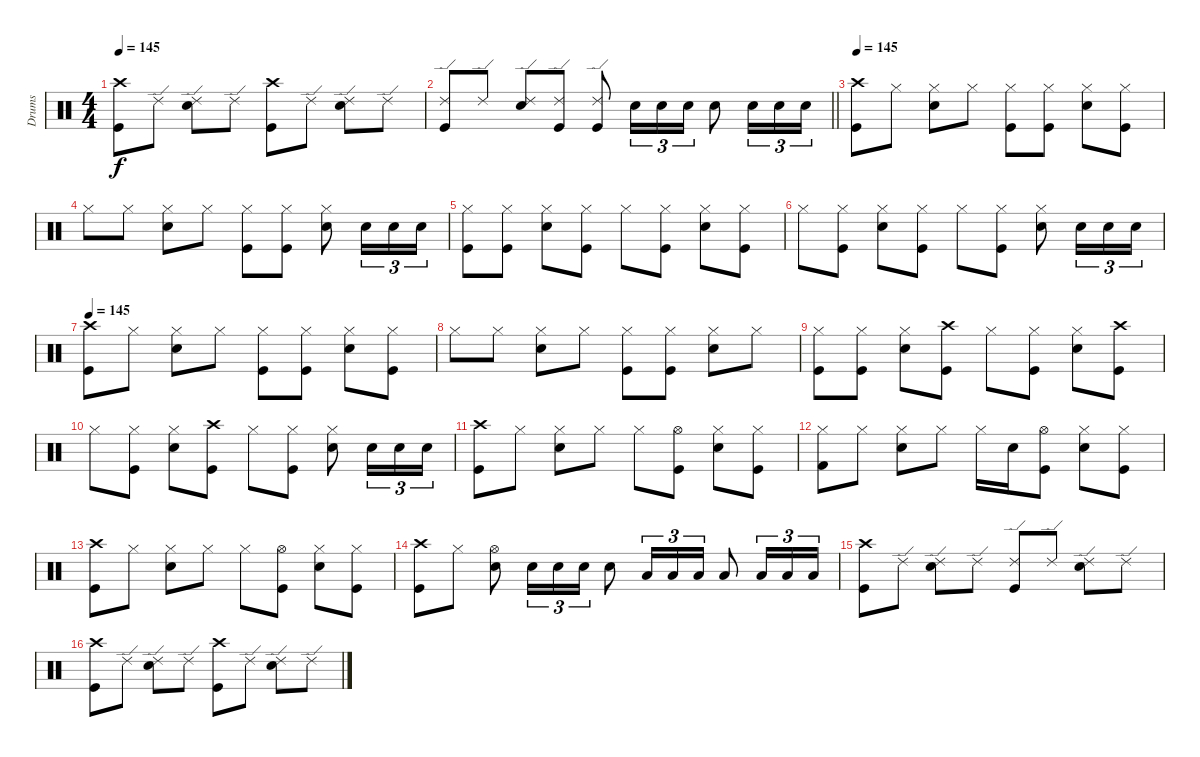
\track ("Drums" "Drums") {instrument percussion}
\staff {score}
\articulation defaults
\ts (4 4)
\tempo 145
\clef neutral
\ks c
("Crash high (hit)" "Kick (hit)").8{dy f} "Ride (edge) 2".8 ("Ride (edge) 2" "Electric Snare (hit)").8 "Ride (edge) 2".8 ("Crash high (hit)" "Kick (hit)").8 "Ride (edge) 2".8 ("Ride (edge) 2" "Electric Snare (hit)").8 "Ride (edge) 2".8 |
\barLineRight lightlight
("Ride (edge) 2" "Kick (hit)").8 "Ride (edge) 2".8 ("Ride (edge) 2" "Electric Snare (hit)").8 ("Ride (edge) 2" "Kick (hit)").8 ("Ride (edge) 2" "Kick (hit)").8 "Electric Snare (hit)".16{tu (3 2)} "Electric Snare (hit)".16{tu (3 2)} "Electric Snare (hit)".16{tu (3 2)} "Electric Snare (hit)".8 "Electric Snare (hit)".16{tu (3 2)} "Electric Snare (hit)".16{tu (3 2)} "Electric Snare (hit)".16{tu (3 2)} |
\tempo 145
("Crash high (hit)" "Kick (hit)").8 "Hi-Hat (closed)".8 ("Hi-Hat (closed)" "Electric Snare (hit)").8 "Hi-Hat (closed)".8 ("Hi-Hat (closed)" "Kick (hit)").8 ("Hi-Hat (closed)" "Kick (hit)").8 ("Hi-Hat (closed)" "Electric Snare (hit)").8 ("Hi-Hat (closed)" "Kick (hit)").8 |
"Hi-Hat (closed)".8 "Hi-Hat (closed)".8 ("Hi-Hat (closed)" "Electric Snare (hit)").8 "Hi-Hat (closed)".8 ("Hi-Hat (closed)" "Kick (hit)").8 ("Hi-Hat (closed)" "Kick (hit)").8 ("Hi-Hat (closed)" "Electric Snare (hit)").8 "Electric Snare (hit)".16{tu (3 2)} "Electric Snare (hit)".16{tu (3 2)} "Electric Snare (hit)".16{tu (3 2)} |
("Hi-Hat (closed)" "Kick (hit)").8 ("Hi-Hat (closed)" "Kick (hit)").8 ("Hi-Hat (closed)" "Electric Snare (hit)").8 ("Hi-Hat (closed)" "Kick (hit)").8 "Hi-Hat (closed)".8 ("Hi-Hat (closed)" "Kick (hit)").8 ("Hi-Hat (closed)" "Electric Snare (hit)").8 ("Hi-Hat (closed)" "Kick (hit)").8 |
"Hi-Hat (closed)".8 ("Hi-Hat (closed)" "Kick (hit)").8 ("Hi-Hat (closed)" "Electric Snare (hit)").8 ("Hi-Hat (closed)" "Kick (hit)").8 "Hi-Hat (closed)".8 ("Hi-Hat (closed)" "Kick (hit)").8 ("Hi-Hat (closed)" "Electric Snare (hit)").8 "Electric Snare (hit)".16{tu (3 2)} "Electric Snare (hit)".16{tu (3 2)} "Electric Snare (hit)".16{tu (3 2)} |
\tempo 145
("Crash high (hit)" "Kick (hit)").8 "Hi-Hat (closed)".8 ("Hi-Hat (closed)" "Electric Snare (hit)").8 "Hi-Hat (closed)".8 ("Hi-Hat (closed)" "Kick (hit)").8 ("Hi-Hat (closed)" "Kick (hit)").8 ("Hi-Hat (closed)" "Electric Snare (hit)").8 ("Hi-Hat (closed)" "Kick (hit)").8 |
"Hi-Hat (closed)".8 "Hi-Hat (closed)".8 ("Hi-Hat (closed)" "Electric Snare (hit)").8 "Hi-Hat (closed)".8 ("Hi-Hat (closed)" "Kick (hit)").8 ("Hi-Hat (closed)" "Kick (hit)").8 ("Hi-Hat (closed)" "Electric Snare (hit)").8 "Hi-Hat (closed)".8 |
("Hi-Hat (closed)" "Kick (hit)").8 ("Hi-Hat (closed)" "Kick (hit)").8 ("Hi-Hat (closed)" "Electric Snare (hit)").8 ("Crash high (hit)" "Kick (hit)").8 "Hi-Hat (closed)".8 ("Hi-Hat (closed)" "Kick (hit)").8 ("Hi-Hat (closed)" "Electric Snare (hit)").8 ("Crash high (hit)" "Kick (hit)").8 |
"Hi-Hat (closed)".8 ("Hi-Hat (closed)" "Kick (hit)").8 ("Hi-Hat (closed)" "Electric Snare (hit)").8 ("Crash high (hit)" "Kick (hit)").8 "Hi-Hat (closed)".8 ("Hi-Hat (closed)" "Kick (hit)").8 ("Hi-Hat (closed)" "Electric Snare (hit)").8 "Electric Snare (hit)".16{tu (3 2)} "Electric Snare (hit)".16{tu (3 2)} "Electric Snare (hit)".16{tu (3 2)} |
("Crash high (hit)" "Kick (hit)").8 "Hi-Hat (closed)".8 ("Hi-Hat (closed)" "Electric Snare (hit)").8 "Hi-Hat (closed)".8 "Hi-Hat (closed)".8 ("Hi-Hat (open)" "Kick (hit)").8 ("Hi-Hat (closed)" "Electric Snare (hit)").8 ("Hi-Hat (closed)" "Kick (hit)").8 |
("Hi-Hat (closed)" "Kick (hit) 2").8 "Hi-Hat (closed)".8 ("Hi-Hat (closed)" "Electric Snare (hit)").8 "Hi-Hat (closed)".8 "Hi-Hat (closed)".16 "Electric Snare (hit)".16 ("Hi-Hat (open)" "Kick (hit)").8 ("Hi-Hat (closed)" "Electric Snare (hit)").8 ("Hi-Hat (closed)" "Kick (hit)").8 |
("Crash high (hit)" "Kick (hit)").8 "Hi-Hat (closed)".8 ("Hi-Hat (closed)" "Electric Snare (hit)").8 "Hi-Hat (closed)".8 "Hi-Hat (closed)".8 ("Hi-Hat (open)" "Kick (hit)").8 ("Hi-Hat (closed)" "Electric Snare (hit)").8 ("Hi-Hat (closed)" "Kick (hit)").8 |
("Crash high (hit)" "Kick (hit)").8 "Hi-Hat (closed)".8 ("Hi-Hat (open)" "Electric Snare (hit)").8 "Electric Snare (hit)".16{tu (3 2)} "Electric Snare (hit)".16{tu (3 2)} "Electric Snare (hit)".16{tu (3 2)} "Electric Snare (hit)".8 "Low Tom (hit)".16{tu (3 2)} "Low Tom (hit)".16{tu (3 2)} "Low Tom (hit)".16{tu (3 2)} "Low Tom (hit)".8 "Low Floor Tom (hit)".16{tu (3 2)} "Low Floor Tom (hit)".16{tu (3 2)} "Low Floor Tom (hit)".16{tu (3 2)} |
("Crash high (hit)" "Kick (hit)").8 "Ride (edge) 2".8 ("Ride (edge) 2" "Electric Snare (hit)").8 "Ride (edge) 2".8 ("Ride (edge) 2" "Kick (hit)").8 "Ride (edge) 2".8 ("Ride (edge) 2" "Electric Snare (hit)").8 "Ride (edge) 2".8 |
("Crash high (hit)" "Kick (hit)").8 "Ride (edge) 2".8 ("Ride (edge) 2" "Electric Snare (hit)").8 "Ride (edge) 2".8 ("Crash high (hit)" "Kick (hit)").8 "Ride (edge) 2".8 ("Ride (edge) 2" "Electric Snare (hit)").8 "Ride (edge) 2".8
